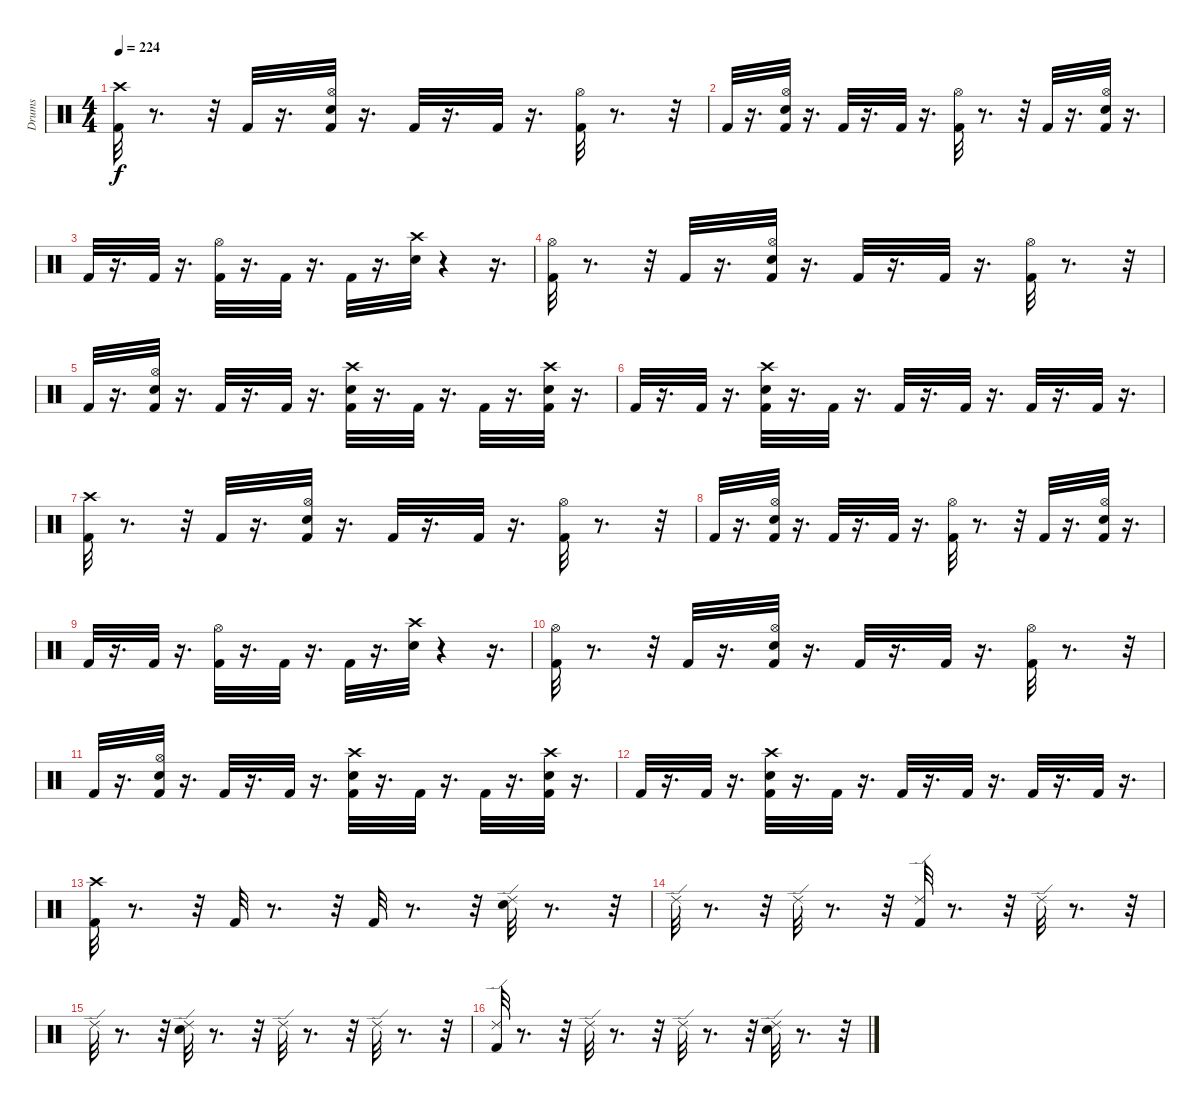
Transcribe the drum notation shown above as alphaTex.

\track ("Drums" "Drums") {instrument percussion}
\staff {score}
\articulation defaults
\ts (4 4)
\tempo 224
\clef neutral
\ks c
("Crash high (hit)" "Kick (hit) 2").32{dy f} r.8{d} r.32 "Kick (hit) 2".32 r.16{d} ("Kick (hit) 2" "Hi-Hat (open)" "Snare (hit) 2").32 r.16{d} "Kick (hit) 2".32 r.16{d} "Kick (hit) 2".32 r.16{d} ("Hi-Hat (open)" "Kick (hit) 2").32 r.8{d} r.32 |
"Kick (hit) 2".32 r.16{d} ("Kick (hit) 2" "Hi-Hat (open)" "Snare (hit) 2").32 r.16{d} "Kick (hit) 2".32 r.16{d} "Kick (hit) 2".32 r.16{d} ("Hi-Hat (open)" "Kick (hit) 2").32 r.8{d} r.32 "Kick (hit) 2".32 r.16{d} ("Kick (hit) 2" "Hi-Hat (open)" "Snare (hit) 2").32 r.16{d} |
"Kick (hit) 2".32 r.16{d} "Kick (hit) 2".32 r.16{d} ("Hi-Hat (open)" "Kick (hit) 2").32 r.16{d} "Kick (hit) 2".32 r.16{d} "Kick (hit) 2".32 r.16{d} ("Crash high (hit)" "Snare (hit) 2").32 r.4 r.16{d} |
("Hi-Hat (open)" "Kick (hit) 2").32 r.8{d} r.32 "Kick (hit) 2".32 r.16{d} ("Kick (hit) 2" "Hi-Hat (open)" "Snare (hit) 2").32 r.16{d} "Kick (hit) 2".32 r.16{d} "Kick (hit) 2".32 r.16{d} ("Hi-Hat (open)" "Kick (hit) 2").32 r.8{d} r.32 |
"Kick (hit) 2".32 r.16{d} ("Kick (hit) 2" "Hi-Hat (open)" "Snare (hit) 2").32 r.16{d} "Kick (hit) 2".32 r.16{d} "Kick (hit) 2".32 r.16{d} ("Kick (hit) 2" "Snare (hit) 2" "Crash high (hit)").32 r.16{d} "Kick (hit) 2".32 r.16{d} "Kick (hit) 2".32 r.16{d} ("Kick (hit) 2" "Snare (hit) 2" "Crash high (hit)").32 r.16{d} |
"Kick (hit) 2".32 r.16{d} "Kick (hit) 2".32 r.16{d} ("Kick (hit) 2" "Snare (hit) 2" "Crash high (hit)").32 r.16{d} "Kick (hit) 2".32 r.16{d} "Kick (hit) 2".32 r.16{d} "Kick (hit) 2".32 r.16{d} "Kick (hit) 2".32 r.16{d} "Kick (hit) 2".32 r.16{d} |
("Crash high (hit)" "Kick (hit) 2").32 r.8{d} r.32 "Kick (hit) 2".32 r.16{d} ("Kick (hit) 2" "Hi-Hat (open)" "Snare (hit) 2").32 r.16{d} "Kick (hit) 2".32 r.16{d} "Kick (hit) 2".32 r.16{d} ("Hi-Hat (open)" "Kick (hit) 2").32 r.8{d} r.32 |
"Kick (hit) 2".32 r.16{d} ("Kick (hit) 2" "Hi-Hat (open)" "Snare (hit) 2").32 r.16{d} "Kick (hit) 2".32 r.16{d} "Kick (hit) 2".32 r.16{d} ("Hi-Hat (open)" "Kick (hit) 2").32 r.8{d} r.32 "Kick (hit) 2".32 r.16{d} ("Kick (hit) 2" "Hi-Hat (open)" "Snare (hit) 2").32 r.16{d} |
"Kick (hit) 2".32 r.16{d} "Kick (hit) 2".32 r.16{d} ("Hi-Hat (open)" "Kick (hit) 2").32 r.16{d} "Kick (hit) 2".32 r.16{d} "Kick (hit) 2".32 r.16{d} ("Crash high (hit)" "Snare (hit) 2").32 r.4 r.16{d} |
("Hi-Hat (open)" "Kick (hit) 2").32 r.8{d} r.32 "Kick (hit) 2".32 r.16{d} ("Kick (hit) 2" "Hi-Hat (open)" "Snare (hit) 2").32 r.16{d} "Kick (hit) 2".32 r.16{d} "Kick (hit) 2".32 r.16{d} ("Hi-Hat (open)" "Kick (hit) 2").32 r.8{d} r.32 |
"Kick (hit) 2".32 r.16{d} ("Kick (hit) 2" "Hi-Hat (open)" "Snare (hit) 2").32 r.16{d} "Kick (hit) 2".32 r.16{d} "Kick (hit) 2".32 r.16{d} ("Kick (hit) 2" "Snare (hit) 2" "Crash high (hit)").32 r.16{d} "Kick (hit) 2".32 r.16{d} "Kick (hit) 2".32 r.16{d} ("Kick (hit) 2" "Snare (hit) 2" "Crash high (hit)").32 r.16{d} |
"Kick (hit) 2".32 r.16{d} "Kick (hit) 2".32 r.16{d} ("Kick (hit) 2" "Snare (hit) 2" "Crash high (hit)").32 r.16{d} "Kick (hit) 2".32 r.16{d} "Kick (hit) 2".32 r.16{d} "Kick (hit) 2".32 r.16{d} "Kick (hit) 2".32 r.16{d} "Kick (hit) 2".32 r.16{d} |
("Crash high (hit)" "Kick (hit) 2").32 r.8{d} r.32 "Kick (hit) 2".32 r.8{d} r.32 "Kick (hit) 2".32 r.8{d} r.32 ("Snare (hit) 2" "Ride (edge) 2").32 r.8{d} r.32 |
"Ride (edge) 2".32 r.8{d} r.32 "Ride (edge) 2".32 r.8{d} r.32 ("Kick (hit) 2" "Ride (edge) 2").32 r.8{d} r.32 "Ride (edge) 2".32 r.8{d} r.32 |
"Ride (edge) 2".32 r.8{d} r.32 ("Snare (hit) 2" "Ride (edge) 2").32 r.8{d} r.32 "Ride (edge) 2".32 r.8{d} r.32 "Ride (edge) 2".32 r.8{d} r.32 |
("Kick (hit) 2" "Ride (edge) 2").32 r.8{d} r.32 "Ride (edge) 2".32 r.8{d} r.32 "Ride (edge) 2".32 r.8{d} r.32 ("Snare (hit) 2" "Ride (edge) 2").32 r.8{d} r.32
